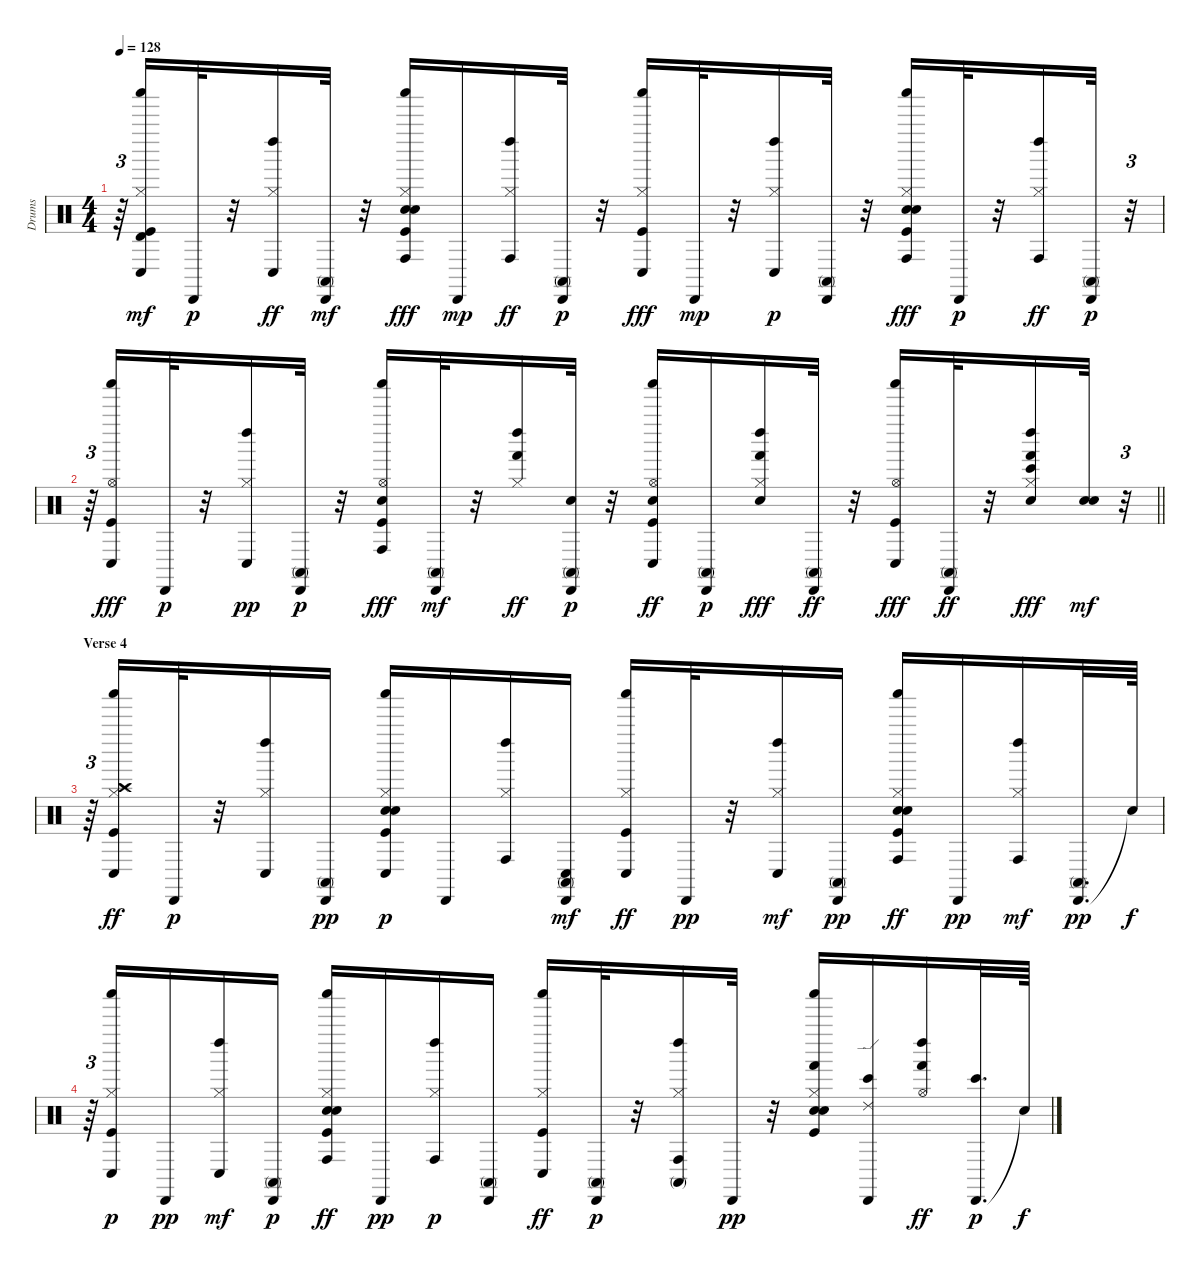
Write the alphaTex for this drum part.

\track ("Drums" "Drums") {instrument percussion}
\staff {score}
\articulation defaults
\ts (4 4)
\tempo 128
\clef neutral
\ks c
r.64{tu (3 2) dy p} ("Kick (hit)" "Hi-Hat (closed)" "Shaker (hit)" "Conga low (hit)" "Timbale high (hit)").16{dy mf} "Cabasa (hit)".32{dy p} r.32 ("Hi-Hat (closed)" "Left Maraca (hit)" "Conga low (hit)").16{dy ff} ("Cabasa (hit)" "Conga high (mute)").32{dy mf} r.32 ("Kick (hit)" "Electric Snare (hit)" "Hand Clap (hit)" "Hi-Hat (closed)" "Shaker (hit)" "Conga high (hit)").16{dy fff} "Cabasa (hit)".16{dy mp} ("Hi-Hat (closed)" "Left Maraca (hit)" "Conga high (hit)").16{dy ff} ("Cabasa (hit)" "Conga high (mute)").32{dy p} r.32 ("Kick (hit)" "Hi-Hat (closed)" "Shaker (hit)" "Conga low (hit)").16{dy fff} "Cabasa (hit)".32{dy mp} r.32 ("Hi-Hat (closed)" "Left Maraca (hit)" "Conga low (hit)").16{dy p} ("Cabasa (hit)" "Conga high (mute)").32 r.32 ("Kick (hit)" "Electric Snare (hit)" "Hand Clap (hit)" "Hi-Hat (closed)" "Shaker (hit)" "Conga high (hit)").16{dy fff} "Cabasa (hit)".32{dy p} r.32 ("Hi-Hat (closed)" "Left Maraca (hit)" "Conga high (hit)").16{dy ff} ("Cabasa (hit)" "Conga high (mute)").32{dy p} r.32{tu (3 2)} |
\barLineRight lightlight
r.64{tu (3 2)} ("Kick (hit)" "Hi-Hat (open)" "Shaker (hit)" "Conga low (hit)").16{dy fff} "Cabasa (hit)".32{dy p} r.32 ("Hi-Hat (closed)" "Left Maraca (hit)" "Conga low (hit)").16{dy pp} ("Cabasa (hit)" "Conga high (mute)").32{dy p} r.32 ("Kick (hit)" "Electric Snare (hit)" "Hi-Hat (open)" "Shaker (hit)" "Conga high (hit)").16{dy fff} ("Cabasa (hit)" "Conga high (mute)").32{dy mf} r.32 ("Hi-Hat (closed)" "Left Maraca (hit)" "Hand (hit)").16{dy ff} ("Electric Snare (hit)" "Cabasa (hit)" "Conga high (mute)").32{dy p} r.32 ("Kick (hit)" "Electric Snare (hit)" "Hi-Hat (open)" "Shaker (hit)" "Conga low (hit)").16{dy ff} ("Cabasa (hit)" "Conga high (mute)").16{dy p} ("Electric Snare (hit)" "Hi-Hat (closed)" "Left Maraca (hit)" "Hand (hit)").16{dy fff} ("Cabasa (hit)" "Conga high (mute)").32{dy ff} r.32 ("Kick (hit)" "Hi-Hat (open)" "Shaker (hit)" "Conga low (hit)").16{dy fff} ("Cabasa (hit)" "Conga high (mute)").32{dy ff} r.32 ("Electric Snare (hit)" "Hi-Hat (closed)" "Left Maraca (hit)" "Hand (hit)" "Bongo High (hit)").16{dy fff} ("Electric Snare (hit)" "Snare (hit) 2").32{dy mf} r.32{tu (3 2)} |
\section ("" "Verse 4")
r.64{tu (3 2)} ("Kick (hit)" "Hi-Hat (closed)" "Crash high (hit)" "Splash (hit)" "Shaker (hit)" "Conga low (hit)").16{dy ff} "Cabasa (hit)".32{dy p} r.32 ("Hi-Hat (closed)" "Left Maraca (hit)" "Conga low (hit)").16 ("Cabasa (hit)" "Conga high (mute)").16{dy pp} ("Kick (hit)" "Electric Snare (hit)" "Hand Clap (hit)" "Hi-Hat (closed)" "Shaker (hit)" "Conga low (hit)").16{dy p} "Cabasa (hit)".16 ("Hi-Hat (closed)" "Left Maraca (hit)" "Conga high (hit)").16 ("Cabasa (hit)" "Conga high (mute)" "Conga low (hit)").16{dy mf} ("Kick (hit)" "Hi-Hat (closed)" "Shaker (hit)" "Conga low (hit)").16{dy ff} "Cabasa (hit)".32{dy pp} r.32 ("Hi-Hat (closed)" "Left Maraca (hit)" "Conga low (hit)").16{dy mf} ("Cabasa (hit)" "Conga high (mute)").16{dy pp} ("Kick (hit)" "Electric Snare (hit)" "Hand Clap (hit)" "Hi-Hat (closed)" "Shaker (hit)" "Conga high (hit)").16{dy ff} "Cabasa (hit)".16{dy pp} ("Hi-Hat (closed)" "Left Maraca (hit)" "Conga high (hit)").16{dy mf} ("Cabasa (hit)" "Conga high (mute)").32{d dy pp} "Snare (hit)"{t}.64{dy f} |
r.64{tu (3 2)} ("Kick (hit)" "Hi-Hat (closed)" "Shaker (hit)" "Conga low (hit)").16{dy p} "Cabasa (hit)".16{dy pp} ("Hi-Hat (closed)" "Left Maraca (hit)" "Conga low (hit)").16{dy mf} ("Cabasa (hit)" "Conga high (mute)").16{dy p} ("Kick (hit)" "Electric Snare (hit)" "Hand Clap (hit)" "Hi-Hat (closed)" "Shaker (hit)" "Conga high (hit)").16{dy ff} "Cabasa (hit)".16{dy pp} ("Hi-Hat (closed)" "Left Maraca (hit)" "Conga high (hit)").16{dy p} ("Cabasa (hit)" "Conga high (mute)").16 ("Kick (hit)" "Hi-Hat (closed)" "Shaker (hit)" "Conga low (hit)").16{dy ff} ("Cabasa (hit)" "Conga high (mute)").32{dy p} r.32 ("Hi-Hat (closed)" "Left Maraca (hit)" "Conga high (hit)" "Conga high (mute)").16 "Cabasa (hit)".32{dy pp} r.32 ("Kick (hit)" "Electric Snare (hit)" "Hand Clap (hit)" "Hi-Hat (closed)" "Shaker (hit)" "Hand (hit)").16 ("Cabasa (hit)" "Bongo High (hit)" "Ride (edge) 2").16 ("Hi-Hat (open)" "Left Maraca (hit)" "Hand (hit)").16{dy ff} ("Cabasa (hit)" "Bongo High (hit)").32{d dy p} "Snare (hit)"{t}.64{dy f}
